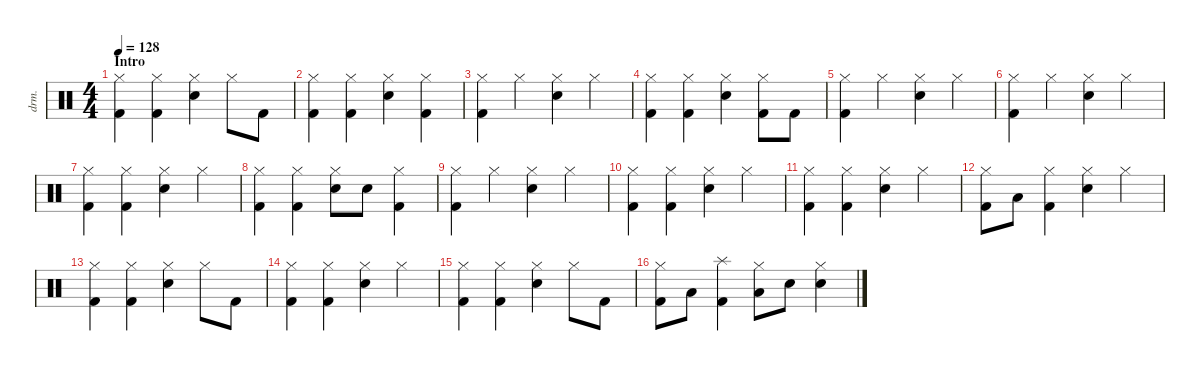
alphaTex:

\defaultSystemsLayout 4
\hideDynamics
\bracketExtendMode nobrackets
\otherSystemsTrackNameOrientation horizontal
\track ("Percussion" "drm.") {instrument percussion}
\staff {score}
\articulation defaults
\ts (4 4)
\section ("" "Intro")
\tempo 128
\clef neutral
\ks c
("Hi-Hat (closed)" "Kick (hit) 2").4{dy f beam Down} ("Hi-Hat (closed)" "Kick (hit) 2").4{beam Down} ("Hi-Hat (closed)" "Snare (hit) 2").4{beam Down} "Hi-Hat (closed)".8{beam Down} "Kick (hit) 2".8{beam Down} |
("Hi-Hat (closed)" "Kick (hit) 2").4{beam Down} ("Hi-Hat (closed)" "Kick (hit) 2").4{beam Down} ("Hi-Hat (closed)" "Snare (hit) 2").4{beam Down} ("Hi-Hat (closed)" "Kick (hit) 2").4{beam Down} |
("Hi-Hat (closed)" "Kick (hit) 2").4{beam Down} "Hi-Hat (closed)".4{beam Down} ("Hi-Hat (closed)" "Snare (hit) 2").4{beam Down} "Hi-Hat (closed)".4{beam Down} |
("Hi-Hat (closed)" "Kick (hit) 2").4{beam Down} ("Hi-Hat (closed)" "Kick (hit) 2").4{beam Down} ("Hi-Hat (closed)" "Snare (hit) 2").4{beam Down} ("Hi-Hat (closed)" "Kick (hit) 2").8{beam Down} "Kick (hit) 2".8{beam Down} |
("Hi-Hat (closed)" "Kick (hit) 2").4{beam Down} "Hi-Hat (closed)".4{beam Down} ("Hi-Hat (closed)" "Snare (hit) 2").4{beam Down} "Hi-Hat (closed)".4{beam Down} |
("Hi-Hat (closed)" "Kick (hit) 2").4{beam Down} "Hi-Hat (closed)".4{beam Down} ("Hi-Hat (closed)" "Snare (hit) 2").4{beam Down} "Hi-Hat (closed)".4{beam Down} |
("Hi-Hat (closed)" "Kick (hit) 2").4{beam Down} ("Hi-Hat (closed)" "Kick (hit) 2").4{beam Down} ("Hi-Hat (closed)" "Snare (hit) 2").4{beam Down} "Hi-Hat (closed)".4{beam Down} |
("Hi-Hat (closed)" "Kick (hit) 2").4{beam Down} ("Hi-Hat (closed)" "Kick (hit) 2").4{beam Down} ("Hi-Hat (closed)" "Snare (hit) 2").8{beam Down} "Snare (hit) 2".8{beam Down} ("Hi-Hat (closed)" "Kick (hit) 2").4{beam Down} |
("Hi-Hat (closed)" "Kick (hit) 2").4{beam Down} "Hi-Hat (closed)".4{beam Down} ("Hi-Hat (closed)" "Snare (hit) 2").4{beam Down} "Hi-Hat (closed)".4{beam Down} |
("Hi-Hat (closed)" "Kick (hit) 2").4{beam Down} ("Hi-Hat (closed)" "Kick (hit) 2").4{beam Down} ("Hi-Hat (closed)" "Snare (hit) 2").4{beam Down} "Hi-Hat (closed)".4{beam Down} |
("Hi-Hat (closed)" "Kick (hit) 2").4{beam Down} ("Hi-Hat (closed)" "Kick (hit) 2").4{beam Down} ("Hi-Hat (closed)" "Snare (hit) 2").4{beam Down} "Hi-Hat (closed)".4{beam Down} |
("Hi-Hat (closed)" "Kick (hit) 2").8{beam Down} "Low Tom (hit)".8{beam Down} ("Hi-Hat (closed)" "Kick (hit) 2").4{beam Down} ("Hi-Hat (closed)" "Snare (hit) 2").4{beam Down} "Hi-Hat (closed)".4{beam Down} |
("Hi-Hat (closed)" "Kick (hit) 2").4{beam Down} ("Hi-Hat (closed)" "Kick (hit) 2").4{beam Down} ("Hi-Hat (closed)" "Snare (hit) 2").4{beam Down} "Hi-Hat (closed)".8{beam Down} "Kick (hit) 2".8{beam Down} |
("Hi-Hat (closed)" "Kick (hit) 2").4{beam Down} ("Hi-Hat (closed)" "Kick (hit) 2").4{beam Down} ("Hi-Hat (closed)" "Snare (hit) 2").4{beam Down} "Hi-Hat (closed)".4{beam Down} |
("Hi-Hat (closed)" "Kick (hit) 2").4{beam Down} ("Hi-Hat (closed)" "Kick (hit) 2").4{beam Down} ("Hi-Hat (closed)" "Snare (hit) 2").4{beam Down} "Hi-Hat (closed)".8{beam Down} "Kick (hit) 2".8{beam Down} |
("Hi-Hat (closed)" "Kick (hit) 2").8{beam Down} "Low Tom (hit)".8{beam Down} ("Splash (hit)" "Kick (hit) 2").4{beam Down} ("Hi-Hat (closed)" "Low Tom (hit)").8{beam Down} "Snare (hit) 2".8{beam Down} ("Hi-Hat (closed)" "Snare (hit) 2").4{beam Down}
